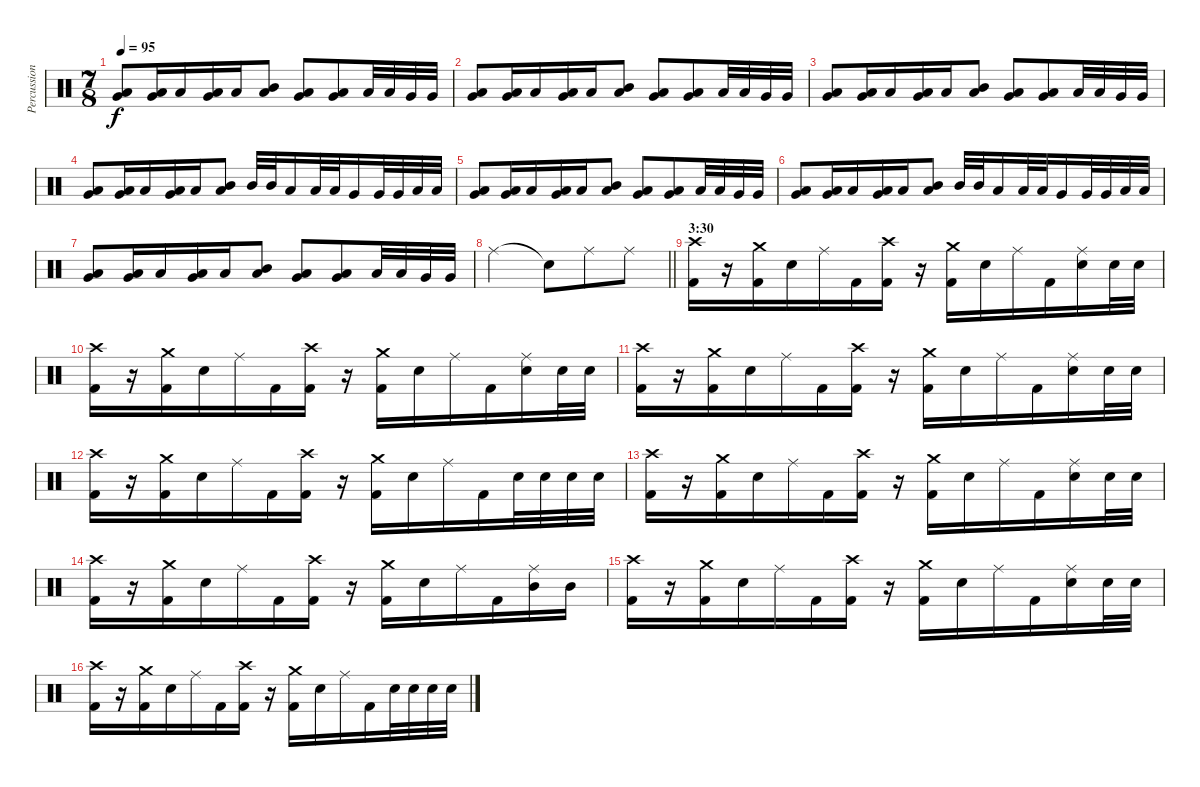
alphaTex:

\track ("Percussion" "Percussion") {instrument percussion}
\staff {score}
\articulation defaults
\ts (7 8)
\tempo 95
\clef neutral
\ks c
("Low Tom (hit)" "Very Low Tom (hit)").8{dy f} ("Low Tom (hit)" "Very Low Tom (hit)").16 "Low Floor Tom (hit)".16 ("Low Tom (hit)" "Very Low Tom (hit)").16 "Low Floor Tom (hit)".16 ("Mid Tom (hit)" "Low Tom (hit)").8 ("Low Tom (hit)" "Very Low Tom (hit)").8 ("Very Low Tom (hit)" "Low Floor Tom (hit)").8 "Low Tom (hit)".32 "Low Tom (hit)".32 "Very Low Tom (hit)".32 "Very Low Tom (hit)".32 |
("Low Tom (hit)" "Very Low Tom (hit)").8 ("Low Tom (hit)" "Very Low Tom (hit)").16 "Low Floor Tom (hit)".16 ("Low Tom (hit)" "Very Low Tom (hit)").16 "Low Floor Tom (hit)".16 ("Mid Tom (hit)" "Low Tom (hit)").8 ("Low Tom (hit)" "Very Low Tom (hit)").8 ("Very Low Tom (hit)" "Low Floor Tom (hit)").8 "Low Tom (hit)".32 "Low Tom (hit)".32 "Very Low Tom (hit)".32 "Very Low Tom (hit)".32 |
("Low Tom (hit)" "Very Low Tom (hit)").8 ("Low Tom (hit)" "Very Low Tom (hit)").16 "Low Floor Tom (hit)".16 ("Low Tom (hit)" "Very Low Tom (hit)").16 "Low Floor Tom (hit)".16 ("Mid Tom (hit)" "Low Tom (hit)").8 ("Low Tom (hit)" "Very Low Tom (hit)").8 ("Very Low Tom (hit)" "Low Floor Tom (hit)").8 "Low Tom (hit)".32 "Low Tom (hit)".32 "Very Low Tom (hit)".32 "Very Low Tom (hit)".32 |
("Low Tom (hit)" "Very Low Tom (hit)").8 ("Low Tom (hit)" "Very Low Tom (hit)").16 "Low Floor Tom (hit)".16 ("Low Tom (hit)" "Very Low Tom (hit)").16 "Low Floor Tom (hit)".16 ("Mid Tom (hit)" "Low Tom (hit)").8 "Mid Tom (hit)".32 "Mid Tom (hit)".32 "Low Tom (hit)".16 "Low Tom (hit)".32 "Low Tom (hit)".32 "Very Low Tom (hit)".16 "Very Low Tom (hit)".32 "Very Low Tom (hit)".32 "Low Floor Tom (hit)".32 "Low Floor Tom (hit)".32 |
("Low Tom (hit)" "Very Low Tom (hit)").8 ("Low Tom (hit)" "Very Low Tom (hit)").16 "Low Floor Tom (hit)".16 ("Low Tom (hit)" "Very Low Tom (hit)").16 "Low Floor Tom (hit)".16 ("Mid Tom (hit)" "Low Tom (hit)").8 ("Low Tom (hit)" "Very Low Tom (hit)").8 ("Very Low Tom (hit)" "Low Floor Tom (hit)").8 "Low Tom (hit)".32 "Low Tom (hit)".32 "Very Low Tom (hit)".32 "Very Low Tom (hit)".32 |
("Low Tom (hit)" "Very Low Tom (hit)").8 ("Low Tom (hit)" "Very Low Tom (hit)").16 "Low Floor Tom (hit)".16 ("Low Tom (hit)" "Very Low Tom (hit)").16 "Low Floor Tom (hit)".16 ("Mid Tom (hit)" "Low Tom (hit)").8 "Mid Tom (hit)".32 "Mid Tom (hit)".32 "Low Tom (hit)".16 "Low Tom (hit)".32 "Low Tom (hit)".32 "Very Low Tom (hit)".16 "Very Low Tom (hit)".32 "Very Low Tom (hit)".32 "Low Floor Tom (hit)".32 "Low Floor Tom (hit)".32 |
("Low Tom (hit)" "Very Low Tom (hit)").8 ("Low Tom (hit)" "Very Low Tom (hit)").16 "Low Floor Tom (hit)".16 ("Low Tom (hit)" "Very Low Tom (hit)").16 "Low Floor Tom (hit)".16 ("Mid Tom (hit)" "Low Tom (hit)").8 ("Low Tom (hit)" "Very Low Tom (hit)").8 ("Very Low Tom (hit)" "Low Floor Tom (hit)").8 "Low Tom (hit)".32 "Low Tom (hit)".32 "Very Low Tom (hit)".32 "Very Low Tom (hit)".32 |
\barLineRight lightlight "Ride (middle)".2 "Snare (hit)"{t}.8 "Ride (middle)".8 "Ride (middle)".8
|
\section ("" "3:30")
("Crash high (hit)" "Kick (hit) 2").16 r.16 ("Crash medium (hit)" "Kick (hit) 2").16 "Electric Snare (hit)".16 "Ride (middle)".16 "Kick (hit) 2".16 ("Crash high (hit)" "Kick (hit) 2").16 r.16 ("Crash medium (hit)" "Kick (hit) 2").16 "Electric Snare (hit)".16 "Ride (middle)".16 "Kick (hit) 2".16 ("Ride (middle)" "Electric Snare (hit)").16 "Electric Snare (hit)".32 "Electric Snare (hit)".32 |
("Crash high (hit)" "Kick (hit) 2").16 r.16 ("Crash medium (hit)" "Kick (hit) 2").16 "Electric Snare (hit)".16 "Ride (middle)".16 "Kick (hit) 2".16 ("Crash high (hit)" "Kick (hit) 2").16 r.16 ("Crash medium (hit)" "Kick (hit) 2").16 "Electric Snare (hit)".16 "Ride (middle)".16 "Kick (hit) 2".16 ("Ride (middle)" "Electric Snare (hit)").16 "Electric Snare (hit)".32 "Electric Snare (hit)".32 |
("Crash high (hit)" "Kick (hit) 2").16 r.16 ("Crash medium (hit)" "Kick (hit) 2").16 "Electric Snare (hit)".16 "Ride (middle)".16 "Kick (hit) 2".16 ("Crash high (hit)" "Kick (hit) 2").16 r.16 ("Crash medium (hit)" "Kick (hit) 2").16 "Electric Snare (hit)".16 "Ride (middle)".16 "Kick (hit) 2".16 ("Ride (middle)" "Electric Snare (hit)").16 "Electric Snare (hit)".32 "Electric Snare (hit)".32 |
("Crash high (hit)" "Kick (hit) 2").16 r.16 ("Crash medium (hit)" "Kick (hit) 2").16 "Electric Snare (hit)".16 "Ride (middle)".16 "Kick (hit) 2".16 ("Crash high (hit)" "Kick (hit) 2").16 r.16 ("Crash medium (hit)" "Kick (hit) 2").16 "Electric Snare (hit)".16 "Ride (middle)".16 "Kick (hit) 2".16 "Electric Snare (hit)".32 "Electric Snare (hit)".32 "Electric Snare (hit)".32 "Electric Snare (hit)".32 |
("Crash high (hit)" "Kick (hit) 2").16 r.16 ("Crash medium (hit)" "Kick (hit) 2").16 "Electric Snare (hit)".16 "Ride (middle)".16 "Kick (hit) 2".16 ("Crash high (hit)" "Kick (hit) 2").16 r.16 ("Crash medium (hit)" "Kick (hit) 2").16 "Electric Snare (hit)".16 "Ride (middle)".16 "Kick (hit) 2".16 ("Ride (middle)" "Electric Snare (hit)").16 "Electric Snare (hit)".32 "Electric Snare (hit)".32 |
("Crash high (hit)" "Kick (hit) 2").16 r.16 ("Crash medium (hit)" "Kick (hit) 2").16 "Electric Snare (hit)".16 "Ride (middle)".16 "Kick (hit) 2".16 ("Crash high (hit)" "Kick (hit) 2").16 r.16 ("Crash medium (hit)" "Kick (hit) 2").16 "Electric Snare (hit)".16 "Ride (middle)".16 "Kick (hit) 2".16 ("Ride (middle)" "Mid Tom (hit)").16 "Mid Tom (hit)".16 |
("Crash high (hit)" "Kick (hit) 2").16 r.16 ("Crash medium (hit)" "Kick (hit) 2").16 "Electric Snare (hit)".16 "Ride (middle)".16 "Kick (hit) 2".16 ("Crash high (hit)" "Kick (hit) 2").16 r.16 ("Crash medium (hit)" "Kick (hit) 2").16 "Electric Snare (hit)".16 "Ride (middle)".16 "Kick (hit) 2".16 ("Ride (middle)" "Electric Snare (hit)").16 "Electric Snare (hit)".32 "Electric Snare (hit)".32 |
("Crash high (hit)" "Kick (hit) 2").16 r.16 ("Crash medium (hit)" "Kick (hit) 2").16 "Electric Snare (hit)".16 "Ride (middle)".16 "Kick (hit) 2".16 ("Crash high (hit)" "Kick (hit) 2").16 r.16 ("Crash medium (hit)" "Kick (hit) 2").16 "Electric Snare (hit)".16 "Ride (middle)".16 "Kick (hit) 2".16 "Electric Snare (hit)".32 "Electric Snare (hit)".32 "Electric Snare (hit)".32 "Electric Snare (hit)".32
